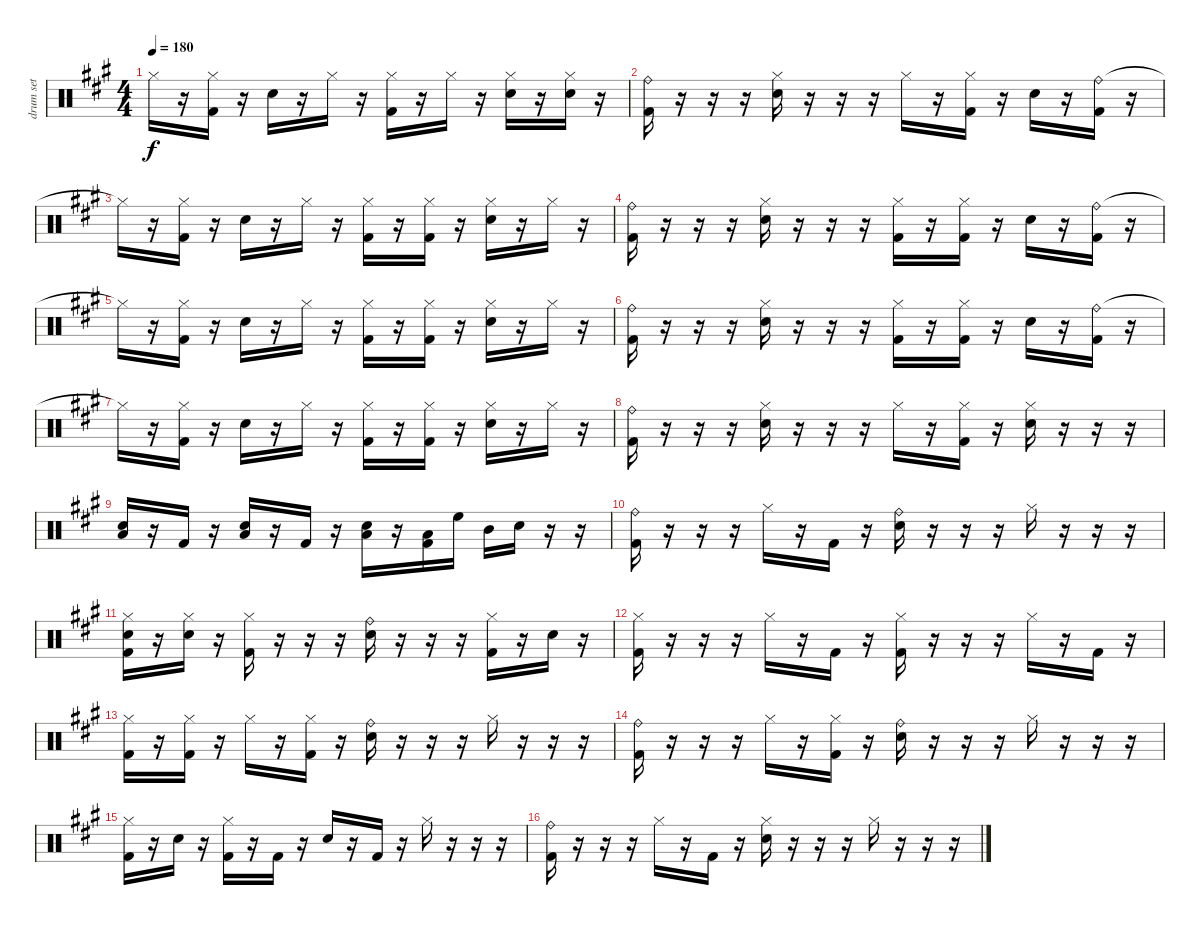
\track ("drum set" "drum set") {instrument percussion}
\staff {score}
\articulation defaults
\ts (4 4)
\tempo 180
\clef neutral
\ks a "Hi-Hat (closed)"{t}.16{dy f}
r.16 ("Hi-Hat (closed)" "Kick (hit) 2").16 r.16 "Snare (hit) 2".16 r.16 "Hi-Hat (closed)".16 r.16 ("Hi-Hat (closed)" "Kick (hit) 2").16 r.16 "Hi-Hat (closed)".16 r.16 ("Hi-Hat (closed)" "Snare (hit) 2").16 r.16 ("Hi-Hat (closed)" "Snare (hit) 2").16 r.16 |
("Ride (bell)" "Kick (hit) 2").16 r.16 r.16 r.16 ("Hi-Hat (closed)" "Snare (hit) 2").16 r.16 r.16 r.16 "Hi-Hat (closed)".16 r.16 ("Hi-Hat (closed)" "Kick (hit) 2").16 r.16 "Snare (hit) 2".16 r.16 ("Ride (bell)" "Kick (hit) 2").16 r.16 |
"Hi-Hat (closed)"{t}.16 r.16 ("Hi-Hat (closed)" "Kick (hit) 2").16 r.16 "Snare (hit) 2".16 r.16 "Hi-Hat (closed)".16 r.16 ("Hi-Hat (closed)" "Kick (hit) 2").16 r.16 ("Hi-Hat (closed)" "Kick (hit) 2").16 r.16 ("Hi-Hat (closed)" "Snare (hit) 2").16 r.16 "Hi-Hat (closed)".16 r.16 |
("Ride (bell)" "Kick (hit) 2").16 r.16 r.16 r.16 ("Hi-Hat (closed)" "Snare (hit) 2").16 r.16 r.16 r.16 ("Hi-Hat (closed)" "Kick (hit) 2").16 r.16 ("Hi-Hat (closed)" "Kick (hit) 2").16 r.16 "Snare (hit) 2".16 r.16 ("Ride (bell)" "Kick (hit) 2").16 r.16 |
"Hi-Hat (closed)"{t}.16 r.16 ("Hi-Hat (closed)" "Kick (hit) 2").16 r.16 "Snare (hit) 2".16 r.16 "Hi-Hat (closed)".16 r.16 ("Hi-Hat (closed)" "Kick (hit) 2").16 r.16 ("Hi-Hat (closed)" "Kick (hit) 2").16 r.16 ("Hi-Hat (closed)" "Snare (hit) 2").16 r.16 "Hi-Hat (closed)".16 r.16 |
("Ride (bell)" "Kick (hit) 2").16 r.16 r.16 r.16 ("Hi-Hat (closed)" "Snare (hit) 2").16 r.16 r.16 r.16 ("Hi-Hat (closed)" "Kick (hit) 2").16 r.16 ("Hi-Hat (closed)" "Kick (hit) 2").16 r.16 "Snare (hit) 2".16 r.16 ("Ride (bell)" "Kick (hit) 2").16 r.16 |
"Hi-Hat (closed)"{t}.16 r.16 ("Hi-Hat (closed)" "Kick (hit) 2").16 r.16 "Snare (hit) 2".16 r.16 "Hi-Hat (closed)".16 r.16 ("Hi-Hat (closed)" "Kick (hit) 2").16 r.16 ("Hi-Hat (closed)" "Kick (hit) 2").16 r.16 ("Hi-Hat (closed)" "Snare (hit) 2").16 r.16 "Hi-Hat (closed)".16 r.16 |
("Ride (bell)" "Kick (hit) 2").16 r.16 r.16 r.16 ("Hi-Hat (closed)" "Snare (hit) 2").16 r.16 r.16 r.16 "Hi-Hat (closed)".16 r.16 ("Hi-Hat (closed)" "Kick (hit) 2").16 r.16 ("Hi-Hat (closed)" "Snare (hit) 2").16 r.16 r.16 r.16 |
("Snare (hit) 2" "Low Floor Tom (hit)").16 r.16 "Kick (hit) 2".16 r.16 ("Snare (hit) 2" "Low Floor Tom (hit)").16 r.16 "Kick (hit) 2".16 r.16 ("Snare (hit) 2" "Low Floor Tom (hit)").16 r.16 ("Low Floor Tom (hit)" "Kick (hit) 2").16 "High Floor Tom (hit)".16 "Mid Tom (hit)".16 "Snare (hit) 2".16 r.16 r.16 |
("Ride (bell)" "Kick (hit) 2").16 r.16 r.16 r.16 "Hi-Hat (closed)".16 r.16 "Kick (hit) 2".16 r.16 ("Ride (bell)" "Snare (hit) 2").16 r.16 r.16 r.16 "Hi-Hat (closed)".16 r.16 r.16 r.16 |
("Hi-Hat (closed)" "Snare (hit) 2" "Kick (hit) 2").16 r.16 ("Hi-Hat (closed)" "Snare (hit) 2").16 r.16 ("Hi-Hat (closed)" "Kick (hit) 2").16 r.16 r.16 r.16 ("Ride (bell)" "Snare (hit) 2").16 r.16 r.16 r.16 ("Hi-Hat (closed)" "Kick (hit) 2").16 r.16 "Snare (hit) 2".16 r.16 |
("Hi-Hat (closed)" "Kick (hit) 2").16 r.16 r.16 r.16 "Hi-Hat (closed)".16 r.16 "Kick (hit) 2".16 r.16 ("Hi-Hat (closed)" "Kick (hit) 2").16 r.16 r.16 r.16 "Hi-Hat (closed)".16 r.16 "Kick (hit) 2".16 r.16 |
("Hi-Hat (closed)" "Kick (hit) 2").16 r.16 ("Hi-Hat (closed)" "Kick (hit) 2").16 r.16 "Hi-Hat (closed)".16 r.16 ("Hi-Hat (closed)" "Kick (hit) 2").16 r.16 ("Ride (bell)" "Snare (hit) 2").16 r.16 r.16 r.16 "Hi-Hat (closed)".16 r.16 r.16 r.16 |
("Ride (bell)" "Kick (hit) 2").16 r.16 r.16 r.16 "Hi-Hat (closed)".16 r.16 ("Hi-Hat (closed)" "Kick (hit) 2").16 r.16 ("Ride (bell)" "Snare (hit) 2").16 r.16 r.16 r.16 "Hi-Hat (closed)".16 r.16 r.16 r.16 |
("Hi-Hat (closed)" "Kick (hit) 2").16 r.16 "Snare (hit) 2".16 r.16 ("Hi-Hat (closed)" "Kick (hit) 2").16 r.16 "Kick (hit) 2".16 r.16 "Snare (hit) 2".16 r.16 "Kick (hit) 2".16 r.16 "Hi-Hat (closed)".16 r.16 r.16 r.16 |
("Ride (bell)" "Kick (hit) 2").16 r.16 r.16 r.16 "Hi-Hat (closed)".16 r.16 "Kick (hit) 2".16 r.16 ("Hi-Hat (closed)" "Snare (hit) 2").16 r.16 r.16 r.16 "Hi-Hat (closed)".16 r.16 r.16 r.16
